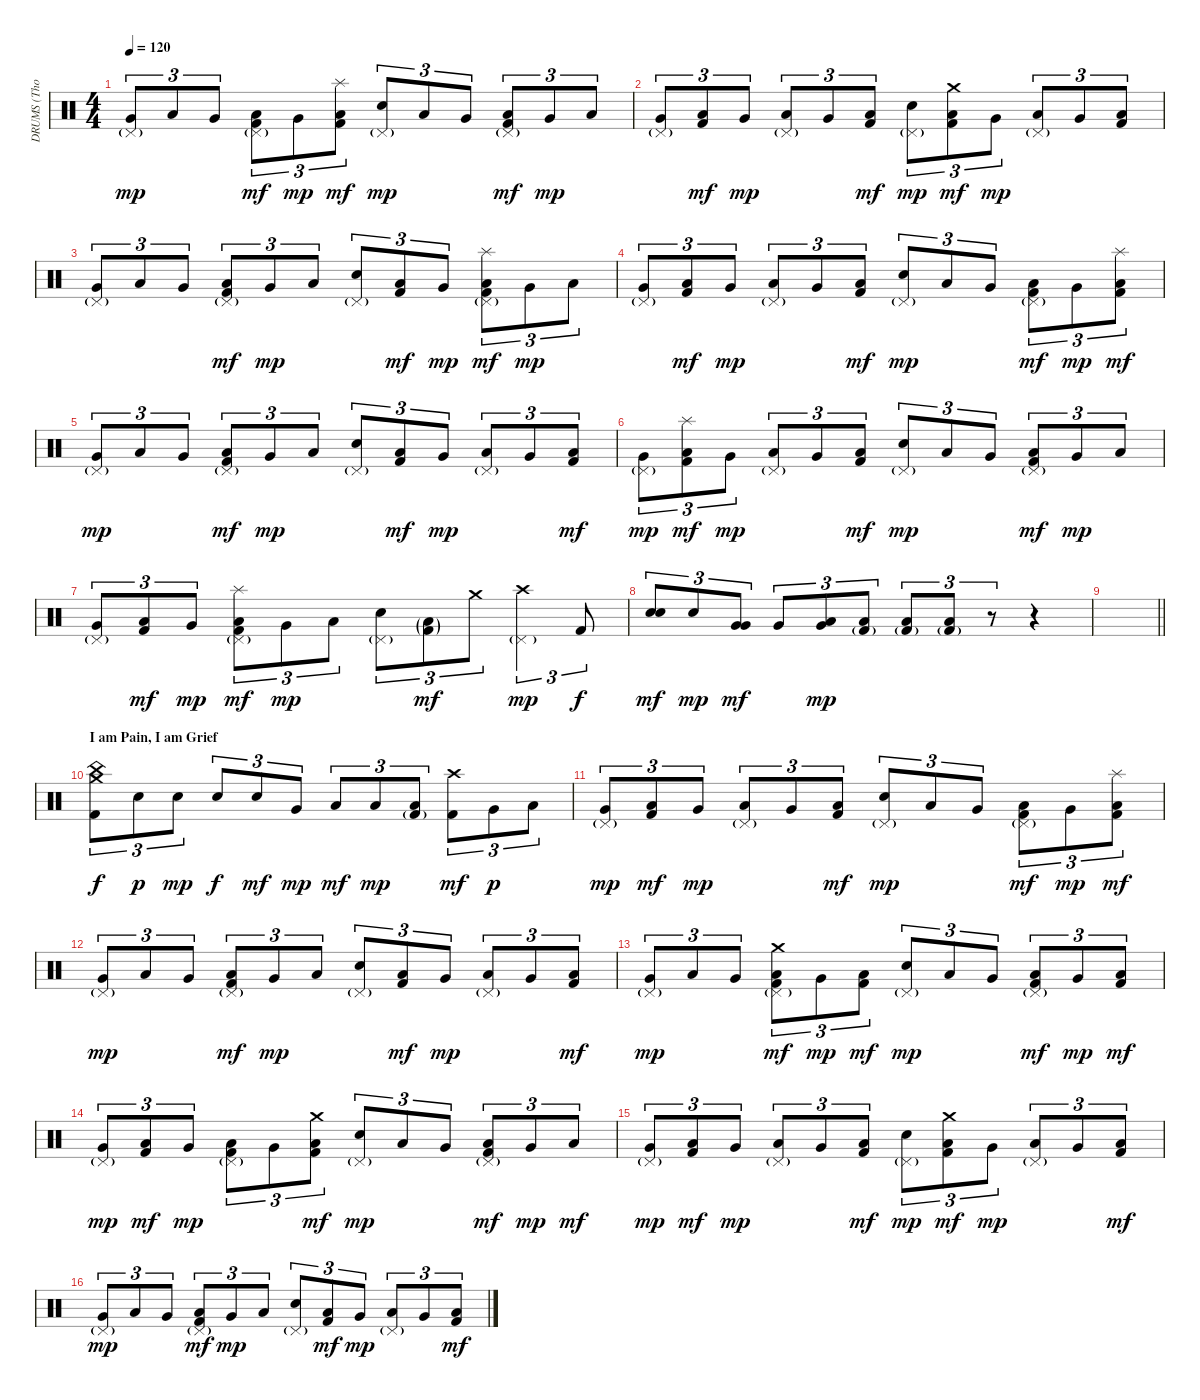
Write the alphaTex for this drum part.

\track ("DRUMS (Thomas Haake)" "DRUMS (Tho") {instrument percussion}
\staff {score}
\articulation defaults
\ts (4 4)
\tempo 120
\clef neutral
\ks c
("Pedal Hi-Hat (hit)"{g} "Very Low Tom (hit)").8{tu (3 2) dy mp} "Low Floor Tom (hit)".8{tu (3 2)} "Very Low Tom (hit)".8{tu (3 2)} ("Pedal Hi-Hat (hit)"{g} "Low Floor Tom (hit)" "Kick (hit) 2").8{tu (3 2) dy mf} "Very Low Tom (hit)".8{tu (3 2) dy mp} ("Splash (hit)" "Low Floor Tom (hit)" "Kick (hit) 2").8{tu (3 2) dy mf} ("Pedal Hi-Hat (hit)"{g} "Electric Snare (hit)").8{tu (3 2) dy mp} "Low Floor Tom (hit)".8{tu (3 2)} "Very Low Tom (hit)".8{tu (3 2)} ("Pedal Hi-Hat (hit)"{g} "Low Floor Tom (hit)" "Kick (hit) 2").8{tu (3 2) dy mf} "Very Low Tom (hit)".8{tu (3 2) dy mp} "Low Floor Tom (hit)".8{tu (3 2)} |
("Pedal Hi-Hat (hit)"{g} "Very Low Tom (hit)").8{tu (3 2)} ("Low Floor Tom (hit)" "Kick (hit) 2").8{tu (3 2) dy mf} "Very Low Tom (hit)".8{tu (3 2) dy mp} ("Pedal Hi-Hat (hit)"{g} "Low Floor Tom (hit)").8{tu (3 2)} "Very Low Tom (hit)".8{tu (3 2)} ("Low Floor Tom (hit)" "Kick (hit) 2").8{tu (3 2) dy mf} ("Pedal Hi-Hat (hit)"{g} "Electric Snare (hit)").8{tu (3 2) dy mp} ("Crash medium (hit)" "Low Floor Tom (hit)" "Kick (hit) 2").8{tu (3 2) dy mf} "Very Low Tom (hit)".8{tu (3 2) dy mp} ("Pedal Hi-Hat (hit)"{g} "Low Floor Tom (hit)").8{tu (3 2)} "Very Low Tom (hit)".8{tu (3 2)} ("Low Floor Tom (hit)" "Kick (hit) 2").8{tu (3 2)} |
("Pedal Hi-Hat (hit)"{g} "Very Low Tom (hit)").8{tu (3 2)} "Low Floor Tom (hit)".8{tu (3 2)} "Very Low Tom (hit)".8{tu (3 2)} ("Pedal Hi-Hat (hit)"{g} "Low Floor Tom (hit)" "Kick (hit) 2").8{tu (3 2) dy mf} "Very Low Tom (hit)".8{tu (3 2) dy mp} "Low Floor Tom (hit)".8{tu (3 2)} ("Pedal Hi-Hat (hit)"{g} "Electric Snare (hit)").8{tu (3 2)} ("Low Floor Tom (hit)" "Kick (hit) 2").8{tu (3 2) dy mf} "Very Low Tom (hit)".8{tu (3 2) dy mp} ("Pedal Hi-Hat (hit)"{g} "Splash (hit)" "Low Floor Tom (hit)" "Kick (hit) 2").8{tu (3 2) dy mf} "Very Low Tom (hit)".8{tu (3 2) dy mp} "Low Floor Tom (hit)".8{tu (3 2)} |
("Pedal Hi-Hat (hit)"{g} "Very Low Tom (hit)").8{tu (3 2)} ("Low Floor Tom (hit)" "Kick (hit) 2").8{tu (3 2) dy mf} "Very Low Tom (hit)".8{tu (3 2) dy mp} ("Pedal Hi-Hat (hit)"{g} "Low Floor Tom (hit)").8{tu (3 2)} "Very Low Tom (hit)".8{tu (3 2)} ("Low Floor Tom (hit)" "Kick (hit) 2").8{tu (3 2) dy mf} ("Pedal Hi-Hat (hit)"{g} "Electric Snare (hit)").8{tu (3 2) dy mp} "Low Floor Tom (hit)".8{tu (3 2)} "Very Low Tom (hit)".8{tu (3 2)} ("Pedal Hi-Hat (hit)"{g} "Low Floor Tom (hit)" "Kick (hit) 2").8{tu (3 2) dy mf} "Very Low Tom (hit)".8{tu (3 2) dy mp} ("Splash (hit)" "Low Floor Tom (hit)" "Kick (hit) 2").8{tu (3 2) dy mf} |
("Pedal Hi-Hat (hit)"{g} "Very Low Tom (hit)").8{tu (3 2) dy mp} "Low Floor Tom (hit)".8{tu (3 2)} "Very Low Tom (hit)".8{tu (3 2)} ("Pedal Hi-Hat (hit)"{g} "Low Floor Tom (hit)" "Kick (hit) 2").8{tu (3 2) dy mf} "Very Low Tom (hit)".8{tu (3 2) dy mp} "Low Floor Tom (hit)".8{tu (3 2)} ("Pedal Hi-Hat (hit)"{g} "Electric Snare (hit)").8{tu (3 2)} ("Low Floor Tom (hit)" "Kick (hit) 2").8{tu (3 2) dy mf} "Very Low Tom (hit)".8{tu (3 2) dy mp} ("Pedal Hi-Hat (hit)"{g} "Low Floor Tom (hit)").8{tu (3 2)} "Very Low Tom (hit)".8{tu (3 2)} ("Low Floor Tom (hit)" "Kick (hit) 2").8{tu (3 2) dy mf} |
("Pedal Hi-Hat (hit)"{g} "Very Low Tom (hit)").8{tu (3 2) dy mp} ("Splash (hit)" "Low Floor Tom (hit)" "Kick (hit) 2").8{tu (3 2) dy mf} "Very Low Tom (hit)".8{tu (3 2) dy mp} ("Pedal Hi-Hat (hit)"{g} "Low Floor Tom (hit)").8{tu (3 2)} "Very Low Tom (hit)".8{tu (3 2)} ("Low Floor Tom (hit)" "Kick (hit) 2").8{tu (3 2) dy mf} ("Pedal Hi-Hat (hit)"{g} "Electric Snare (hit)").8{tu (3 2) dy mp} "Low Floor Tom (hit)".8{tu (3 2)} "Very Low Tom (hit)".8{tu (3 2)} ("Pedal Hi-Hat (hit)"{g} "Low Floor Tom (hit)" "Kick (hit) 2").8{tu (3 2) dy mf} "Very Low Tom (hit)".8{tu (3 2) dy mp} "Low Floor Tom (hit)".8{tu (3 2)} |
("Pedal Hi-Hat (hit)"{g} "Very Low Tom (hit)").8{tu (3 2)} ("Low Floor Tom (hit)" "Kick (hit) 2").8{tu (3 2) dy mf} "Very Low Tom (hit)".8{tu (3 2) dy mp} ("Pedal Hi-Hat (hit)"{g} "Splash (hit)" "Low Floor Tom (hit)" "Kick (hit) 2").8{tu (3 2) dy mf} "Very Low Tom (hit)".8{tu (3 2) dy mp} "Low Floor Tom (hit)".8{tu (3 2)} ("Pedal Hi-Hat (hit)"{g} "Electric Snare (hit)").8{tu (3 2)} ("Low Floor Tom (hit)"{g} "Kick (hit) 2"{g}).8{tu (3 2) dy mf} "Crash medium (hit)".8{tu (3 2)} ("Pedal Hi-Hat (hit)"{g} "Crash high (hit)").4{tu (3 2) dy mp} "Kick (hit) 2".8{tu (3 2) dy f} |
("Electric Snare (hit)" "Electric Snare (hit)").8{tu (3 2) bd 120 dy mf} "Electric Snare (hit)".8{tu (3 2) dy mp} ("Very Low Tom (hit)" "Very Low Tom (hit)").8{tu (3 2) bd 60 dy mf} "Very Low Tom (hit)".8{tu (3 2)} ("Very Low Tom (hit)" "Low Floor Tom (hit)").8{tu (3 2) dy mp} ("Low Floor Tom (hit)" "Kick (hit) 2"{g}).8{tu (3 2)} ("Low Floor Tom (hit)" "Kick (hit) 2"{g}).8{tu (3 2)} ("Low Floor Tom (hit)" "Kick (hit) 2"{g}).8{tu (3 2)} r.8{tu (3 2)} r.4 |
\barLineRight lightlight
|
\section ("" "I am Pain, I am Grief")
("Crash medium (hit)" "China (hit)" "Kick (hit) 2").8{tu (3 2) dy f} "Electric Snare (hit)".8{tu (3 2) dy p} "Electric Snare (hit)".8{tu (3 2) dy mp} "Electric Snare (hit)".8{tu (3 2) dy f} "Electric Snare (hit)".8{tu (3 2) dy mf} "Very Low Tom (hit)".8{tu (3 2) dy mp} "Low Floor Tom (hit)".8{tu (3 2) dy mf} "Low Floor Tom (hit)".8{tu (3 2) dy mp} ("Low Floor Tom (hit)" "Kick (hit) 2"{g}).8{tu (3 2)} ("Crash high (hit)" "Kick (hit) 2").8{tu (3 2) dy mf} "Very Low Tom (hit)".8{tu (3 2) dy p} "Low Floor Tom (hit)".8{tu (3 2)} |
("Pedal Hi-Hat (hit)"{g} "Very Low Tom (hit)").8{tu (3 2) dy mp} ("Low Floor Tom (hit)" "Kick (hit) 2").8{tu (3 2) dy mf} "Very Low Tom (hit)".8{tu (3 2) dy mp} ("Pedal Hi-Hat (hit)"{g} "Low Floor Tom (hit)").8{tu (3 2)} "Very Low Tom (hit)".8{tu (3 2)} ("Low Floor Tom (hit)" "Kick (hit) 2").8{tu (3 2) dy mf} ("Pedal Hi-Hat (hit)"{g} "Electric Snare (hit)").8{tu (3 2) dy mp} "Low Floor Tom (hit)".8{tu (3 2)} "Very Low Tom (hit)".8{tu (3 2)} ("Pedal Hi-Hat (hit)"{g} "Low Floor Tom (hit)" "Kick (hit) 2").8{tu (3 2) dy mf} "Very Low Tom (hit)".8{tu (3 2) dy mp} ("Splash (hit)" "Low Floor Tom (hit)" "Kick (hit) 2").8{tu (3 2) dy mf} |
("Pedal Hi-Hat (hit)"{g} "Very Low Tom (hit)").8{tu (3 2) dy mp} "Low Floor Tom (hit)".8{tu (3 2)} "Very Low Tom (hit)".8{tu (3 2)} ("Pedal Hi-Hat (hit)"{g} "Low Floor Tom (hit)" "Kick (hit) 2").8{tu (3 2) dy mf} "Very Low Tom (hit)".8{tu (3 2) dy mp} "Low Floor Tom (hit)".8{tu (3 2)} ("Pedal Hi-Hat (hit)"{g} "Electric Snare (hit)").8{tu (3 2)} ("Low Floor Tom (hit)" "Kick (hit) 2").8{tu (3 2) dy mf} "Very Low Tom (hit)".8{tu (3 2) dy mp} ("Pedal Hi-Hat (hit)"{g} "Low Floor Tom (hit)").8{tu (3 2)} "Very Low Tom (hit)".8{tu (3 2)} ("Low Floor Tom (hit)" "Kick (hit) 2").8{tu (3 2) dy mf} |
("Pedal Hi-Hat (hit)"{g} "Very Low Tom (hit)").8{tu (3 2) dy mp} "Low Floor Tom (hit)".8{tu (3 2)} "Very Low Tom (hit)".8{tu (3 2)} ("Pedal Hi-Hat (hit)"{g} "Crash medium (hit)" "Low Floor Tom (hit)" "Kick (hit) 2").8{tu (3 2) dy mf} "Very Low Tom (hit)".8{tu (3 2) dy mp} ("Low Floor Tom (hit)" "Kick (hit) 2").8{tu (3 2) dy mf} ("Pedal Hi-Hat (hit)"{g} "Electric Snare (hit)").8{tu (3 2) dy mp} "Low Floor Tom (hit)".8{tu (3 2)} "Very Low Tom (hit)".8{tu (3 2)} ("Pedal Hi-Hat (hit)"{g} "Low Floor Tom (hit)" "Kick (hit) 2").8{tu (3 2) dy mf} "Very Low Tom (hit)".8{tu (3 2) dy mp} ("Low Floor Tom (hit)" "Kick (hit) 2").8{tu (3 2) dy mf} |
("Pedal Hi-Hat (hit)"{g} "Very Low Tom (hit)").8{tu (3 2) dy mp} ("Low Floor Tom (hit)" "Kick (hit) 2").8{tu (3 2) dy mf} "Very Low Tom (hit)".8{tu (3 2) dy mp} ("Pedal Hi-Hat (hit)"{g} "Low Floor Tom (hit)" "Kick (hit) 2").8{tu (3 2)} "Very Low Tom (hit)".8{tu (3 2)} ("Crash medium (hit)" "Low Floor Tom (hit)" "Kick (hit) 2").8{tu (3 2) dy mf} ("Pedal Hi-Hat (hit)"{g} "Electric Snare (hit)").8{tu (3 2) dy mp} "Low Floor Tom (hit)".8{tu (3 2)} "Very Low Tom (hit)".8{tu (3 2)} ("Pedal Hi-Hat (hit)"{g} "Low Floor Tom (hit)" "Kick (hit) 2").8{tu (3 2) dy mf} "Very Low Tom (hit)".8{tu (3 2) dy mp} "Low Floor Tom (hit)".8{tu (3 2) dy mf} |
("Pedal Hi-Hat (hit)"{g} "Very Low Tom (hit)").8{tu (3 2) dy mp} ("Low Floor Tom (hit)" "Kick (hit) 2").8{tu (3 2) dy mf} "Very Low Tom (hit)".8{tu (3 2) dy mp} ("Pedal Hi-Hat (hit)"{g} "Low Floor Tom (hit)").8{tu (3 2)} "Very Low Tom (hit)".8{tu (3 2)} ("Low Floor Tom (hit)" "Kick (hit) 2").8{tu (3 2) dy mf} ("Pedal Hi-Hat (hit)"{g} "Electric Snare (hit)").8{tu (3 2) dy mp} ("Crash medium (hit)" "Low Floor Tom (hit)" "Kick (hit) 2").8{tu (3 2) dy mf} "Very Low Tom (hit)".8{tu (3 2) dy mp} ("Pedal Hi-Hat (hit)"{g} "Low Floor Tom (hit)").8{tu (3 2)} "Very Low Tom (hit)".8{tu (3 2)} ("Low Floor Tom (hit)" "Kick (hit) 2").8{tu (3 2) dy mf} |
("Pedal Hi-Hat (hit)"{g} "Very Low Tom (hit)").8{tu (3 2) dy mp} "Low Floor Tom (hit)".8{tu (3 2)} "Very Low Tom (hit)".8{tu (3 2)} ("Pedal Hi-Hat (hit)"{g} "Low Floor Tom (hit)" "Kick (hit) 2").8{tu (3 2) dy mf} "Very Low Tom (hit)".8{tu (3 2) dy mp} "Low Floor Tom (hit)".8{tu (3 2)} ("Pedal Hi-Hat (hit)"{g} "Electric Snare (hit)").8{tu (3 2)} ("Low Floor Tom (hit)" "Kick (hit) 2").8{tu (3 2) dy mf} "Very Low Tom (hit)".8{tu (3 2) dy mp} ("Pedal Hi-Hat (hit)"{g} "Low Floor Tom (hit)").8{tu (3 2)} "Very Low Tom (hit)".8{tu (3 2)} ("Low Floor Tom (hit)" "Kick (hit) 2").8{tu (3 2) dy mf}
